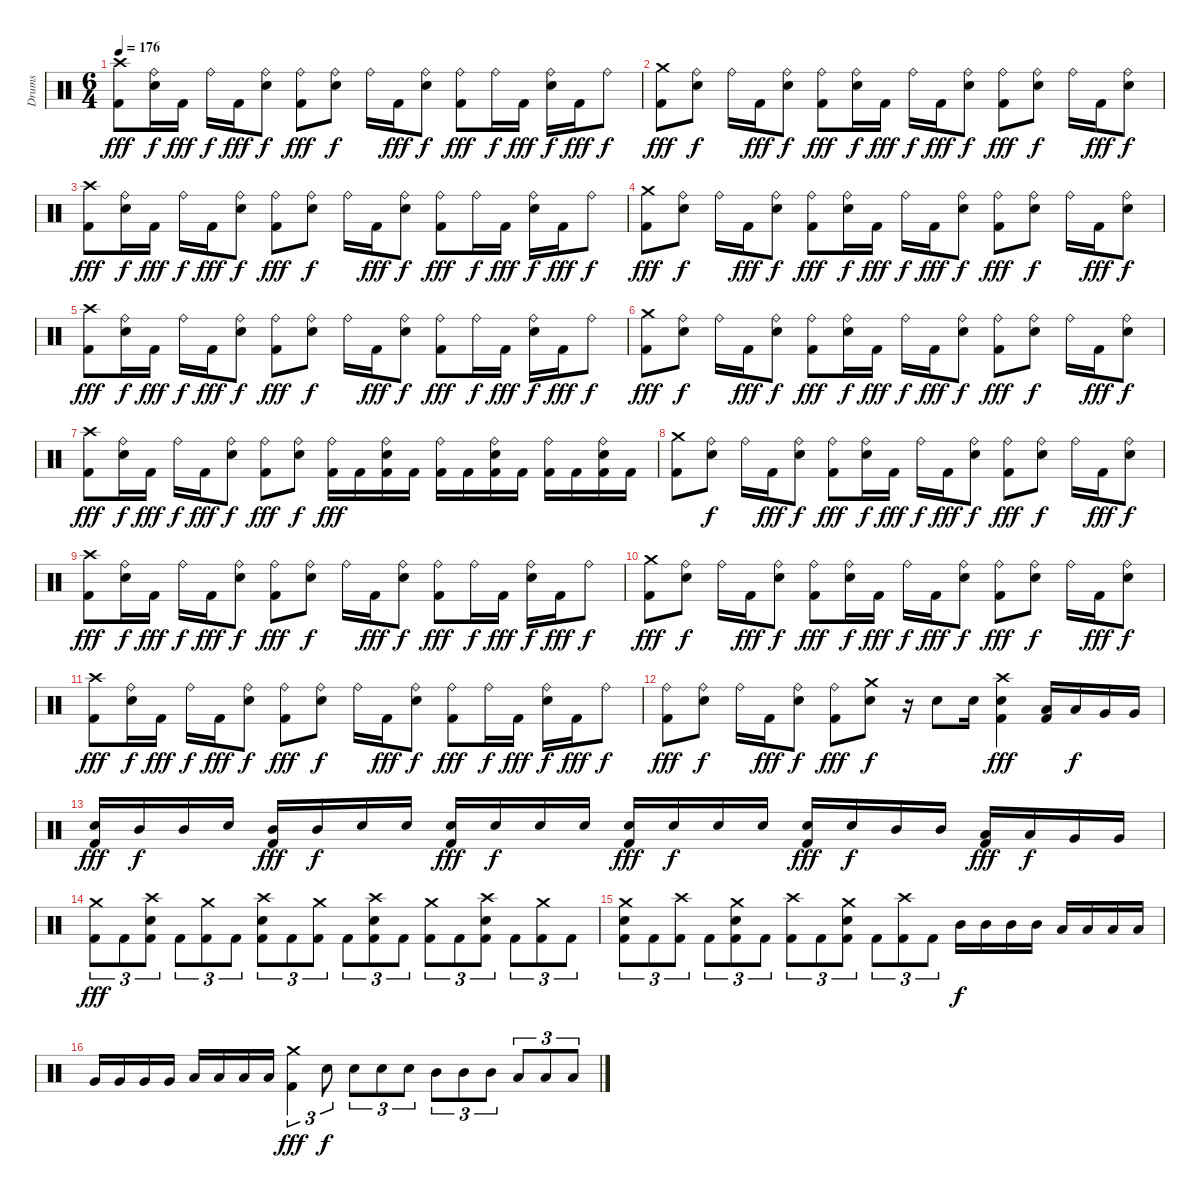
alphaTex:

\track ("Drums" "Drums") {instrument percussion}
\staff {score}
\articulation defaults
\ts (6 4)
\tempo 176
\clef neutral
\ks c
("Crash high (hit)" "Kick (hit) 2").8{dy fff} ("Ride (bell)" "Snare (hit) 2").16{dy f} "Kick (hit) 2".16{dy fff} "Ride (bell)".16{dy f} "Kick (hit) 2".16{dy fff} ("Ride (bell)" "Snare (hit) 2").8{dy f} ("Ride (bell)" "Kick (hit) 2").8{dy fff} ("Ride (bell)" "Snare (hit) 2").8{dy f} "Ride (bell)".16 "Kick (hit) 2".16{dy fff} ("Ride (bell)" "Snare (hit) 2").8{dy f} ("Ride (bell)" "Kick (hit) 2").8{dy fff} "Ride (bell)".16{dy f} "Kick (hit) 2".16{dy fff} ("Ride (bell)" "Snare (hit) 2").16{dy f} "Kick (hit) 2".16{dy fff} "Ride (bell)".8{dy f} |
("Crash medium (hit)" "Kick (hit) 2").8{dy fff} ("Ride (bell)" "Snare (hit) 2").8{dy f} "Ride (bell)".16 "Kick (hit) 2".16{dy fff} ("Ride (bell)" "Snare (hit) 2").8{dy f} ("Ride (bell)" "Kick (hit) 2").8{dy fff} ("Ride (bell)" "Snare (hit) 2").16{dy f} "Kick (hit) 2".16{dy fff} "Ride (bell)".16{dy f} "Kick (hit) 2".16{dy fff} ("Ride (bell)" "Snare (hit) 2").8{dy f} ("Ride (bell)" "Kick (hit) 2").8{dy fff} ("Ride (bell)" "Snare (hit) 2").8{dy f} "Ride (bell)".16 "Kick (hit) 2".16{dy fff} ("Ride (bell)" "Snare (hit) 2").8{dy f} |
("Crash high (hit)" "Kick (hit) 2").8{dy fff} ("Ride (bell)" "Snare (hit) 2").16{dy f} "Kick (hit) 2".16{dy fff} "Ride (bell)".16{dy f} "Kick (hit) 2".16{dy fff} ("Ride (bell)" "Snare (hit) 2").8{dy f} ("Ride (bell)" "Kick (hit) 2").8{dy fff} ("Ride (bell)" "Snare (hit) 2").8{dy f} "Ride (bell)".16 "Kick (hit) 2".16{dy fff} ("Ride (bell)" "Snare (hit) 2").8{dy f} ("Ride (bell)" "Kick (hit) 2").8{dy fff} "Ride (bell)".16{dy f} "Kick (hit) 2".16{dy fff} ("Ride (bell)" "Snare (hit) 2").16{dy f} "Kick (hit) 2".16{dy fff} "Ride (bell)".8{dy f} |
("Crash medium (hit)" "Kick (hit) 2").8{dy fff} ("Ride (bell)" "Snare (hit) 2").8{dy f} "Ride (bell)".16 "Kick (hit) 2".16{dy fff} ("Ride (bell)" "Snare (hit) 2").8{dy f} ("Ride (bell)" "Kick (hit) 2").8{dy fff} ("Ride (bell)" "Snare (hit) 2").16{dy f} "Kick (hit) 2".16{dy fff} "Ride (bell)".16{dy f} "Kick (hit) 2".16{dy fff} ("Ride (bell)" "Snare (hit) 2").8{dy f} ("Ride (bell)" "Kick (hit) 2").8{dy fff} ("Ride (bell)" "Snare (hit) 2").8{dy f} "Ride (bell)".16 "Kick (hit) 2".16{dy fff} ("Ride (bell)" "Snare (hit) 2").8{dy f} |
("Crash high (hit)" "Kick (hit) 2").8{dy fff} ("Ride (bell)" "Snare (hit) 2").16{dy f} "Kick (hit) 2".16{dy fff} "Ride (bell)".16{dy f} "Kick (hit) 2".16{dy fff} ("Ride (bell)" "Snare (hit) 2").8{dy f} ("Ride (bell)" "Kick (hit) 2").8{dy fff} ("Ride (bell)" "Snare (hit) 2").8{dy f} "Ride (bell)".16 "Kick (hit) 2".16{dy fff} ("Ride (bell)" "Snare (hit) 2").8{dy f} ("Ride (bell)" "Kick (hit) 2").8{dy fff} "Ride (bell)".16{dy f} "Kick (hit) 2".16{dy fff} ("Ride (bell)" "Snare (hit) 2").16{dy f} "Kick (hit) 2".16{dy fff} "Ride (bell)".8{dy f} |
("Crash medium (hit)" "Kick (hit) 2").8{dy fff} ("Ride (bell)" "Snare (hit) 2").8{dy f} "Ride (bell)".16 "Kick (hit) 2".16{dy fff} ("Ride (bell)" "Snare (hit) 2").8{dy f} ("Ride (bell)" "Kick (hit) 2").8{dy fff} ("Ride (bell)" "Snare (hit) 2").16{dy f} "Kick (hit) 2".16{dy fff} "Ride (bell)".16{dy f} "Kick (hit) 2".16{dy fff} ("Ride (bell)" "Snare (hit) 2").8{dy f} ("Ride (bell)" "Kick (hit) 2").8{dy fff} ("Ride (bell)" "Snare (hit) 2").8{dy f} "Ride (bell)".16 "Kick (hit) 2".16{dy fff} ("Ride (bell)" "Snare (hit) 2").8{dy f} |
("Crash high (hit)" "Kick (hit) 2").8{dy fff} ("Ride (bell)" "Snare (hit) 2").16{dy f} "Kick (hit) 2".16{dy fff} "Ride (bell)".16{dy f} "Kick (hit) 2".16{dy fff} ("Ride (bell)" "Snare (hit) 2").8{dy f} ("Ride (bell)" "Kick (hit) 2").8{dy fff} ("Ride (bell)" "Snare (hit) 2").8{dy f} ("Ride (bell)" "Kick (hit) 2").16{dy fff} "Kick (hit) 2".16 ("Ride (bell)" "Snare (hit) 2" "Kick (hit) 2").16 "Kick (hit) 2".16 ("Ride (bell)" "Kick (hit) 2").16 "Kick (hit) 2".16 ("Ride (bell)" "Snare (hit) 2" "Kick (hit) 2").16 "Kick (hit) 2".16 ("Ride (bell)" "Kick (hit) 2").16 "Kick (hit) 2".16 ("Ride (bell)" "Snare (hit) 2" "Kick (hit) 2").16 "Kick (hit) 2".16 |
("Crash medium (hit)" "Kick (hit) 2").8 ("Ride (bell)" "Snare (hit) 2").8{dy f} "Ride (bell)".16 "Kick (hit) 2".16{dy fff} ("Ride (bell)" "Snare (hit) 2").8{dy f} ("Ride (bell)" "Kick (hit) 2").8{dy fff} ("Ride (bell)" "Snare (hit) 2").16{dy f} "Kick (hit) 2".16{dy fff} "Ride (bell)".16{dy f} "Kick (hit) 2".16{dy fff} ("Ride (bell)" "Snare (hit) 2").8{dy f} ("Ride (bell)" "Kick (hit) 2").8{dy fff} ("Ride (bell)" "Snare (hit) 2").8{dy f} "Ride (bell)".16 "Kick (hit) 2".16{dy fff} ("Ride (bell)" "Snare (hit) 2").8{dy f} |
("Crash high (hit)" "Kick (hit) 2").8{dy fff} ("Ride (bell)" "Snare (hit) 2").16{dy f} "Kick (hit) 2".16{dy fff} "Ride (bell)".16{dy f} "Kick (hit) 2".16{dy fff} ("Ride (bell)" "Snare (hit) 2").8{dy f} ("Ride (bell)" "Kick (hit) 2").8{dy fff} ("Ride (bell)" "Snare (hit) 2").8{dy f} "Ride (bell)".16 "Kick (hit) 2".16{dy fff} ("Ride (bell)" "Snare (hit) 2").8{dy f} ("Ride (bell)" "Kick (hit) 2").8{dy fff} "Ride (bell)".16{dy f} "Kick (hit) 2".16{dy fff} ("Ride (bell)" "Snare (hit) 2").16{dy f} "Kick (hit) 2".16{dy fff} "Ride (bell)".8{dy f} |
("Crash medium (hit)" "Kick (hit) 2").8{dy fff} ("Ride (bell)" "Snare (hit) 2").8{dy f} "Ride (bell)".16 "Kick (hit) 2".16{dy fff} ("Ride (bell)" "Snare (hit) 2").8{dy f} ("Ride (bell)" "Kick (hit) 2").8{dy fff} ("Ride (bell)" "Snare (hit) 2").16{dy f} "Kick (hit) 2".16{dy fff} "Ride (bell)".16{dy f} "Kick (hit) 2".16{dy fff} ("Ride (bell)" "Snare (hit) 2").8{dy f} ("Ride (bell)" "Kick (hit) 2").8{dy fff} ("Ride (bell)" "Snare (hit) 2").8{dy f} "Ride (bell)".16 "Kick (hit) 2".16{dy fff} ("Ride (bell)" "Snare (hit) 2").8{dy f} |
("Crash high (hit)" "Kick (hit) 2").8{dy fff} ("Ride (bell)" "Snare (hit) 2").16{dy f} "Kick (hit) 2".16{dy fff} "Ride (bell)".16{dy f} "Kick (hit) 2".16{dy fff} ("Ride (bell)" "Snare (hit) 2").8{dy f} ("Ride (bell)" "Kick (hit) 2").8{dy fff} ("Ride (bell)" "Snare (hit) 2").8{dy f} "Ride (bell)".16 "Kick (hit) 2".16{dy fff} ("Ride (bell)" "Snare (hit) 2").8{dy f} ("Ride (bell)" "Kick (hit) 2").8{dy fff} "Ride (bell)".16{dy f} "Kick (hit) 2".16{dy fff} ("Ride (bell)" "Snare (hit) 2").16{dy f} "Kick (hit) 2".16{dy fff} "Ride (bell)".8{dy f} |
("Ride (bell)" "Kick (hit) 2").8{dy fff} ("Ride (bell)" "Snare (hit) 2").8{dy f} "Ride (bell)".16 "Kick (hit) 2".16{dy fff} ("Ride (bell)" "Snare (hit) 2").8{dy f} ("Ride (bell)" "Kick (hit) 2").8{dy fff} ("Crash medium (hit)" "Snare (hit) 2").8{dy f} r.16 "Snare (hit) 2".8 "Snare (hit) 2".16 ("Crash high (hit)" "Snare (hit) 2" "Kick (hit) 2").4{dy fff} ("Low Tom (hit)" "Kick (hit) 2").16 "Low Tom (hit)".16{dy f} "Very Low Tom (hit)".16 "Very Low Tom (hit)".16 |
("Snare (hit) 2" "Kick (hit) 2").16{dy fff} "Mid Tom (hit)".16{dy f} "Mid Tom (hit)".16 "Snare (hit) 2".16 ("Mid Tom (hit)" "Kick (hit) 2").16{dy fff} "Mid Tom (hit)".16{dy f} "Snare (hit) 2".16 "Snare (hit) 2".16 ("Snare (hit) 2" "Kick (hit) 2").16{dy fff} "Snare (hit) 2".16{dy f} "Snare (hit) 2".16 "Snare (hit) 2".16 ("Snare (hit) 2" "Kick (hit) 2").16{dy fff} "Snare (hit) 2".16{dy f} "Snare (hit) 2".16 "Snare (hit) 2".16 ("Snare (hit) 2" "Kick (hit) 2").16{dy fff} "Snare (hit) 2".16{dy f} "Mid Tom (hit)".16 "Mid Tom (hit)".16 ("Low Tom (hit)" "Kick (hit) 2").16{dy fff} "Low Tom (hit)".16{dy f} "Very Low Tom (hit)".16 "Very Low Tom (hit)".16 |
("Crash medium (hit)" "Kick (hit) 2").8{tu (3 2) dy fff} "Kick (hit) 2".8{tu (3 2)} ("Crash high (hit)" "Snare (hit) 2" "Kick (hit) 2").8{tu (3 2)} "Kick (hit) 2".8{tu (3 2)} ("Crash medium (hit)" "Kick (hit) 2").8{tu (3 2)} "Kick (hit) 2".8{tu (3 2)} ("Crash high (hit)" "Snare (hit) 2" "Kick (hit) 2").8{tu (3 2)} "Kick (hit) 2".8{tu (3 2)} ("Crash medium (hit)" "Kick (hit) 2").8{tu (3 2)} "Kick (hit) 2".8{tu (3 2)} ("Crash high (hit)" "Snare (hit) 2" "Kick (hit) 2").8{tu (3 2)} "Kick (hit) 2".8{tu (3 2)} ("Crash medium (hit)" "Kick (hit) 2").8{tu (3 2)} "Kick (hit) 2".8{tu (3 2)} ("Crash high (hit)" "Snare (hit) 2" "Kick (hit) 2").8{tu (3 2)} "Kick (hit) 2".8{tu (3 2)} ("Crash medium (hit)" "Kick (hit) 2").8{tu (3 2)} "Kick (hit) 2".8{tu (3 2)} |
("Crash medium (hit)" "Snare (hit) 2" "Kick (hit) 2").8{tu (3 2)} "Kick (hit) 2".8{tu (3 2)} ("Crash high (hit)" "Kick (hit) 2").8{tu (3 2)} "Kick (hit) 2".8{tu (3 2)} ("Crash medium (hit)" "Snare (hit) 2" "Kick (hit) 2").8{tu (3 2)} "Kick (hit) 2".8{tu (3 2)} ("Crash high (hit)" "Kick (hit) 2").8{tu (3 2)} "Kick (hit) 2".8{tu (3 2)} ("Crash medium (hit)" "Snare (hit) 2" "Kick (hit) 2").8{tu (3 2)} "Kick (hit) 2".8{tu (3 2)} ("Crash high (hit)" "Kick (hit) 2").8{tu (3 2)} "Kick (hit) 2".8{tu (3 2)} "Mid Tom (hit)".16{dy f} "Mid Tom (hit)".16 "Mid Tom (hit)".16 "Mid Tom (hit)".16 "Low Tom (hit)".16 "Low Tom (hit)".16 "Low Tom (hit)".16 "Low Tom (hit)".16 |
"Very Low Tom (hit)".16 "Very Low Tom (hit)".16 "Very Low Tom (hit)".16 "Very Low Tom (hit)".16 "Low Floor Tom (hit)".16 "Low Floor Tom (hit)".16 "Low Floor Tom (hit)".16 "Low Floor Tom (hit)".16 ("Crash medium (hit)" "Kick (hit) 2").4{tu (3 2) dy fff} "Snare (hit) 2".8{tu (3 2) dy f} "Snare (hit) 2".8{tu (3 2)} "Snare (hit) 2".8{tu (3 2)} "Snare (hit) 2".8{tu (3 2)} "Mid Tom (hit)".8{tu (3 2)} "Mid Tom (hit)".8{tu (3 2)} "Mid Tom (hit)".8{tu (3 2)} "Low Tom (hit)".8{tu (3 2)} "Low Tom (hit)".8{tu (3 2)} "Low Tom (hit)".8{tu (3 2)}
